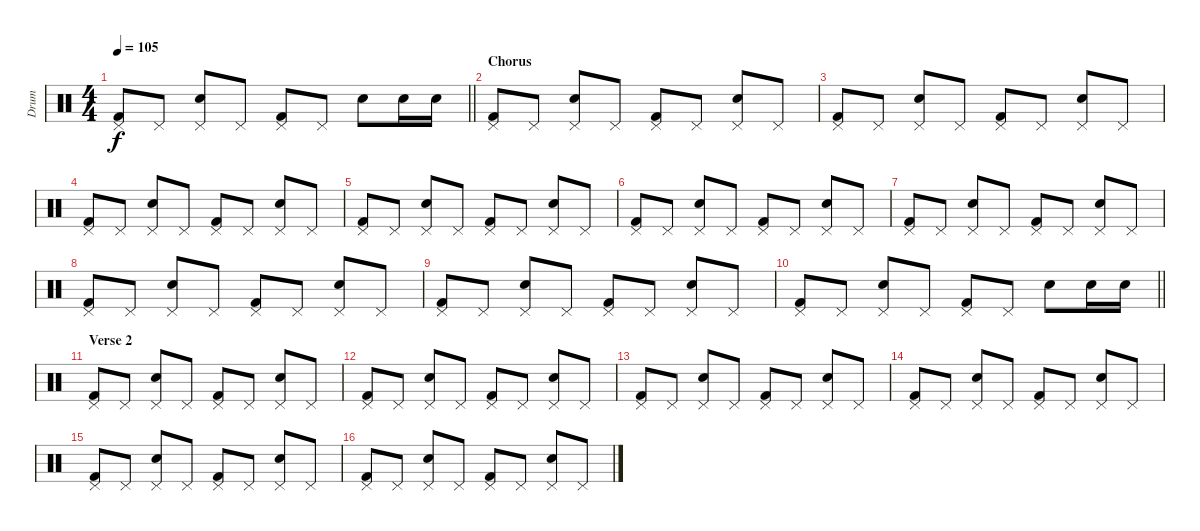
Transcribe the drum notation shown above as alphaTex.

\track ("Drum" "Drum") {instrument percussion}
\staff {score}
\articulation defaults
\ts (4 4)
\tempo 105
\clef neutral
\barLineRight lightlight
\ks c
("Kick (hit) 2" "Pedal Hi-Hat (hit)").8{dy f} "Pedal Hi-Hat (hit)".8 ("Electric Snare (hit)" "Pedal Hi-Hat (hit)").8 "Pedal Hi-Hat (hit)".8 ("Kick (hit) 2" "Pedal Hi-Hat (hit)").8 "Pedal Hi-Hat (hit)".8 "Electric Snare (hit)".8 "Electric Snare (hit)".16 "Electric Snare (hit)".16 |
\section ("" "Chorus")
("Kick (hit) 2" "Pedal Hi-Hat (hit)").8 "Pedal Hi-Hat (hit)".8 ("Electric Snare (hit)" "Pedal Hi-Hat (hit)").8 "Pedal Hi-Hat (hit)".8 ("Kick (hit) 2" "Pedal Hi-Hat (hit)").8 "Pedal Hi-Hat (hit)".8 ("Electric Snare (hit)" "Pedal Hi-Hat (hit)").8 "Pedal Hi-Hat (hit)".8 |
("Kick (hit) 2" "Pedal Hi-Hat (hit)").8 "Pedal Hi-Hat (hit)".8 ("Electric Snare (hit)" "Pedal Hi-Hat (hit)").8 "Pedal Hi-Hat (hit)".8 ("Kick (hit) 2" "Pedal Hi-Hat (hit)").8 "Pedal Hi-Hat (hit)".8 ("Electric Snare (hit)" "Pedal Hi-Hat (hit)").8 "Pedal Hi-Hat (hit)".8 |
("Kick (hit) 2" "Pedal Hi-Hat (hit)").8 "Pedal Hi-Hat (hit)".8 ("Electric Snare (hit)" "Pedal Hi-Hat (hit)").8 "Pedal Hi-Hat (hit)".8 ("Kick (hit) 2" "Pedal Hi-Hat (hit)").8 "Pedal Hi-Hat (hit)".8 ("Electric Snare (hit)" "Pedal Hi-Hat (hit)").8 "Pedal Hi-Hat (hit)".8 |
("Kick (hit) 2" "Pedal Hi-Hat (hit)").8 "Pedal Hi-Hat (hit)".8 ("Electric Snare (hit)" "Pedal Hi-Hat (hit)").8 "Pedal Hi-Hat (hit)".8 ("Kick (hit) 2" "Pedal Hi-Hat (hit)").8 "Pedal Hi-Hat (hit)".8 ("Electric Snare (hit)" "Pedal Hi-Hat (hit)").8 "Pedal Hi-Hat (hit)".8 |
("Kick (hit) 2" "Pedal Hi-Hat (hit)").8 "Pedal Hi-Hat (hit)".8 ("Electric Snare (hit)" "Pedal Hi-Hat (hit)").8 "Pedal Hi-Hat (hit)".8 ("Kick (hit) 2" "Pedal Hi-Hat (hit)").8 "Pedal Hi-Hat (hit)".8 ("Electric Snare (hit)" "Pedal Hi-Hat (hit)").8 "Pedal Hi-Hat (hit)".8 |
("Kick (hit) 2" "Pedal Hi-Hat (hit)").8 "Pedal Hi-Hat (hit)".8 ("Electric Snare (hit)" "Pedal Hi-Hat (hit)").8 "Pedal Hi-Hat (hit)".8 ("Kick (hit) 2" "Pedal Hi-Hat (hit)").8 "Pedal Hi-Hat (hit)".8 ("Electric Snare (hit)" "Pedal Hi-Hat (hit)").8 "Pedal Hi-Hat (hit)".8 |
("Kick (hit) 2" "Pedal Hi-Hat (hit)").8 "Pedal Hi-Hat (hit)".8 ("Electric Snare (hit)" "Pedal Hi-Hat (hit)").8 "Pedal Hi-Hat (hit)".8 ("Kick (hit) 2" "Pedal Hi-Hat (hit)").8 "Pedal Hi-Hat (hit)".8 ("Electric Snare (hit)" "Pedal Hi-Hat (hit)").8 "Pedal Hi-Hat (hit)".8 |
("Kick (hit) 2" "Pedal Hi-Hat (hit)").8 "Pedal Hi-Hat (hit)".8 ("Electric Snare (hit)" "Pedal Hi-Hat (hit)").8 "Pedal Hi-Hat (hit)".8 ("Kick (hit) 2" "Pedal Hi-Hat (hit)").8 "Pedal Hi-Hat (hit)".8 ("Electric Snare (hit)" "Pedal Hi-Hat (hit)").8 "Pedal Hi-Hat (hit)".8 |
\barLineRight lightlight
("Kick (hit) 2" "Pedal Hi-Hat (hit)").8 "Pedal Hi-Hat (hit)".8 ("Electric Snare (hit)" "Pedal Hi-Hat (hit)").8 "Pedal Hi-Hat (hit)".8 ("Kick (hit) 2" "Pedal Hi-Hat (hit)").8 "Pedal Hi-Hat (hit)".8 "Electric Snare (hit)".8 "Electric Snare (hit)".16 "Electric Snare (hit)".16 |
\section ("" "Verse 2")
("Kick (hit) 2" "Pedal Hi-Hat (hit)").8 "Pedal Hi-Hat (hit)".8 ("Electric Snare (hit)" "Pedal Hi-Hat (hit)").8 "Pedal Hi-Hat (hit)".8 ("Kick (hit) 2" "Pedal Hi-Hat (hit)").8 "Pedal Hi-Hat (hit)".8 ("Electric Snare (hit)" "Pedal Hi-Hat (hit)").8 "Pedal Hi-Hat (hit)".8 |
("Kick (hit) 2" "Pedal Hi-Hat (hit)").8 "Pedal Hi-Hat (hit)".8 ("Electric Snare (hit)" "Pedal Hi-Hat (hit)").8 "Pedal Hi-Hat (hit)".8 ("Kick (hit) 2" "Pedal Hi-Hat (hit)").8 "Pedal Hi-Hat (hit)".8 ("Electric Snare (hit)" "Pedal Hi-Hat (hit)").8 "Pedal Hi-Hat (hit)".8 |
("Kick (hit) 2" "Pedal Hi-Hat (hit)").8 "Pedal Hi-Hat (hit)".8 ("Electric Snare (hit)" "Pedal Hi-Hat (hit)").8 "Pedal Hi-Hat (hit)".8 ("Kick (hit) 2" "Pedal Hi-Hat (hit)").8 "Pedal Hi-Hat (hit)".8 ("Electric Snare (hit)" "Pedal Hi-Hat (hit)").8 "Pedal Hi-Hat (hit)".8 |
("Kick (hit) 2" "Pedal Hi-Hat (hit)").8 "Pedal Hi-Hat (hit)".8 ("Electric Snare (hit)" "Pedal Hi-Hat (hit)").8 "Pedal Hi-Hat (hit)".8 ("Kick (hit) 2" "Pedal Hi-Hat (hit)").8 "Pedal Hi-Hat (hit)".8 ("Electric Snare (hit)" "Pedal Hi-Hat (hit)").8 "Pedal Hi-Hat (hit)".8 |
("Kick (hit) 2" "Pedal Hi-Hat (hit)").8 "Pedal Hi-Hat (hit)".8 ("Electric Snare (hit)" "Pedal Hi-Hat (hit)").8 "Pedal Hi-Hat (hit)".8 ("Kick (hit) 2" "Pedal Hi-Hat (hit)").8 "Pedal Hi-Hat (hit)".8 ("Electric Snare (hit)" "Pedal Hi-Hat (hit)").8 "Pedal Hi-Hat (hit)".8 |
("Kick (hit) 2" "Pedal Hi-Hat (hit)").8 "Pedal Hi-Hat (hit)".8 ("Electric Snare (hit)" "Pedal Hi-Hat (hit)").8 "Pedal Hi-Hat (hit)".8 ("Kick (hit) 2" "Pedal Hi-Hat (hit)").8 "Pedal Hi-Hat (hit)".8 ("Electric Snare (hit)" "Pedal Hi-Hat (hit)").8 "Pedal Hi-Hat (hit)".8
